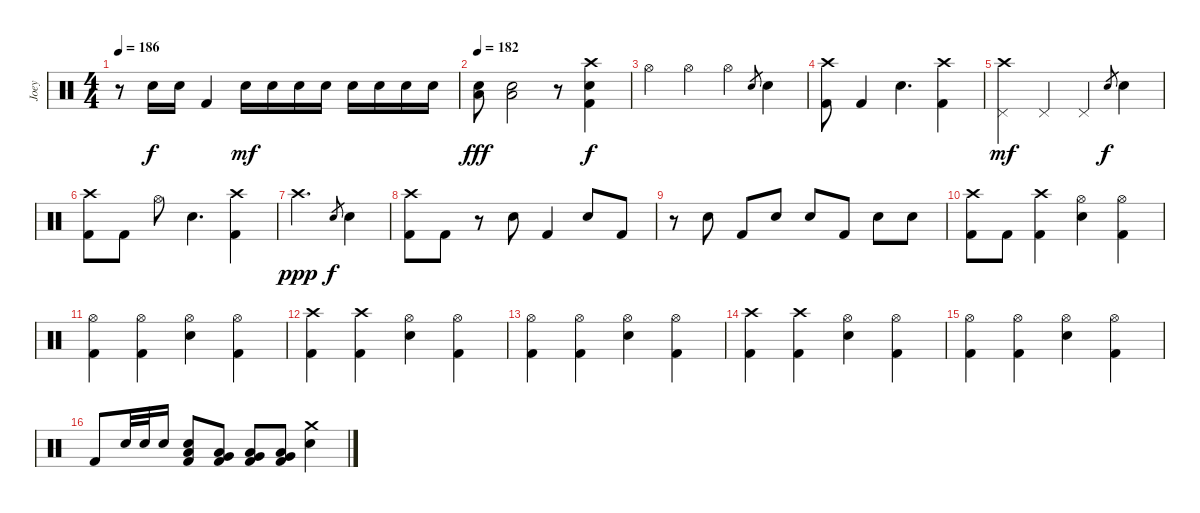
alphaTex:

\track ("Joey" "Joey") {instrument percussion}
\staff {score}
\articulation defaults
\ts (4 4)
\tempo 186
\clef neutral
\ks c
r.8{dy f} "Electric Snare (hit)".16 "Electric Snare (hit)".16 "Kick (hit) 2".4 "Electric Snare (hit)".16{dy mf} "Electric Snare (hit)".16 "Electric Snare (hit)".16 "Electric Snare (hit)".16 "Electric Snare (hit)".16 "Electric Snare (hit)".16 "Electric Snare (hit)".16 "Electric Snare (hit)".16 |
\tempo 182
("Electric Snare (hit)" "Low Floor Tom (hit)").8{dy fff} ("Electric Snare (hit)" "Low Floor Tom (hit)").2 r.8 ("Crash high (hit)" "Electric Snare (hit)" "Kick (hit) 2").4{dy f} |
"Hi-Hat (open)".4 "Hi-Hat (open)".4 "Hi-Hat (open)".4 "Electric Snare (hit)".8{gr} "Electric Snare (hit)".4 |
("Crash high (hit)" "Kick (hit) 2").8 "Kick (hit) 2".4 "Electric Snare (hit)".4{d} ("Crash high (hit)" "Kick (hit) 2").4 |
("Crash high (hit)" "Pedal Hi-Hat (hit)").4{dy mf} "Pedal Hi-Hat (hit)".4 "Pedal Hi-Hat (hit)".4 "Electric Snare (hit)".8{gr dy f} "Electric Snare (hit)".4 |
("Crash high (hit)" "Kick (hit) 2").8 "Kick (hit) 2".8 "Hi-Hat (open)".8 "Electric Snare (hit)".4{d} ("Crash high (hit)" "Kick (hit) 2").4 |
"Crash high (hit)".2{d dy ppp} "Electric Snare (hit)".8{gr dy f} "Electric Snare (hit)".4 |
("Crash high (hit)" "Kick (hit) 2").8 "Kick (hit) 2".8 r.8 "Electric Snare (hit)".8 "Kick (hit) 2".4 "Electric Snare (hit)".8 "Kick (hit) 2".8 |
r.8 "Electric Snare (hit)".8 "Kick (hit) 2".8 "Electric Snare (hit)".8 "Electric Snare (hit)".8 "Kick (hit) 2".8 "Electric Snare (hit)".8 "Electric Snare (hit)".8 |
("Crash high (hit)" "Kick (hit) 2").8 "Kick (hit) 2".8 ("Crash high (hit)" "Kick (hit) 2").4 ("Hi-Hat (open)" "Electric Snare (hit)").4 ("Hi-Hat (open)" "Kick (hit) 2").4 |
("Hi-Hat (open)" "Kick (hit) 2").4 ("Hi-Hat (open)" "Kick (hit) 2").4 ("Hi-Hat (open)" "Electric Snare (hit)").4 ("Hi-Hat (open)" "Kick (hit) 2").4 |
("Crash high (hit)" "Kick (hit) 2").4 ("Crash high (hit)" "Kick (hit) 2").4 ("Hi-Hat (open)" "Electric Snare (hit)").4 ("Hi-Hat (open)" "Kick (hit) 2").4 |
("Hi-Hat (open)" "Kick (hit) 2").4 ("Hi-Hat (open)" "Kick (hit) 2").4 ("Hi-Hat (open)" "Electric Snare (hit)").4 ("Hi-Hat (open)" "Kick (hit) 2").4 |
("Crash high (hit)" "Kick (hit) 2").4 ("Crash high (hit)" "Kick (hit) 2").4 ("Hi-Hat (open)" "Electric Snare (hit)").4 ("Hi-Hat (open)" "Kick (hit) 2").4 |
("Hi-Hat (open)" "Kick (hit) 2").4 ("Hi-Hat (open)" "Kick (hit) 2").4 ("Hi-Hat (open)" "Electric Snare (hit)").4 ("Hi-Hat (open)" "Kick (hit) 2").4 |
"Kick (hit) 2".8 "Electric Snare (hit)".32 "Electric Snare (hit)".32 "Electric Snare (hit)".16 ("Electric Snare (hit)" "Low Floor Tom (hit)" "Kick (hit) 2").8 ("Very Low Tom (hit)" "Low Floor Tom (hit)" "Kick (hit) 2").8 ("Very Low Tom (hit)" "Low Floor Tom (hit)" "Kick (hit) 2").8 ("Very Low Tom (hit)" "Low Floor Tom (hit)" "Kick (hit) 2").8 ("Crash medium (hit)" "Electric Snare (hit)").4
